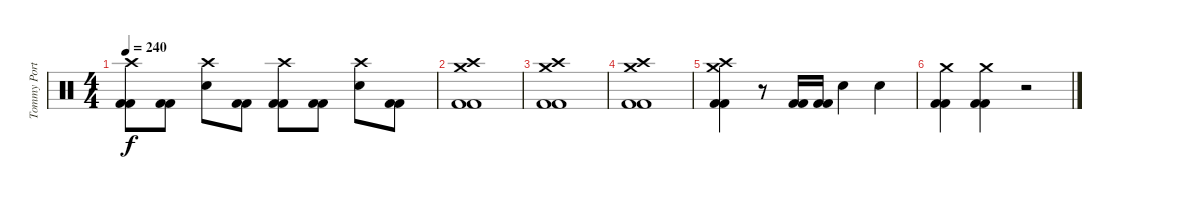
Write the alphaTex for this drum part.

\track ("Tommy Portimo " "Tommy Port") {instrument percussion}
\staff {score}
\articulation defaults
\ts (4 4)
\tempo 240
\clef neutral
\ks c
("Crash high (hit)" "Kick (hit) 2" "Kick (hit) 2").8{dy f} ("Kick (hit) 2" "Kick (hit) 2").8 ("Crash high (hit)" "Electric Snare (hit)").8 ("Kick (hit) 2" "Kick (hit) 2").8 ("Crash high (hit)" "Kick (hit) 2" "Kick (hit) 2").8 ("Kick (hit) 2" "Kick (hit) 2").8 ("Crash high (hit)" "Electric Snare (hit)").8 ("Kick (hit) 2" "Kick (hit) 2").8 |
("Crash medium (hit)" "Crash high (hit)" "Kick (hit) 2" "Kick (hit) 2").1 |
("Crash medium (hit)" "Crash high (hit)" "Kick (hit) 2" "Kick (hit) 2").1 |
("Crash medium (hit)" "Crash high (hit)" "Kick (hit) 2" "Kick (hit) 2").1 |
("Crash high (hit)" "Crash medium (hit)" "Kick (hit) 2" "Kick (hit) 2").4 r.8 ("Kick (hit) 2" "Kick (hit) 2").16 ("Kick (hit) 2" "Kick (hit) 2").16 "Electric Snare (hit)".4 "Electric Snare (hit)".4 |
("Crash medium (hit)" "Kick (hit) 2" "Kick (hit) 2").4 ("Crash medium (hit)" "Kick (hit) 2" "Kick (hit) 2").4 r.2
